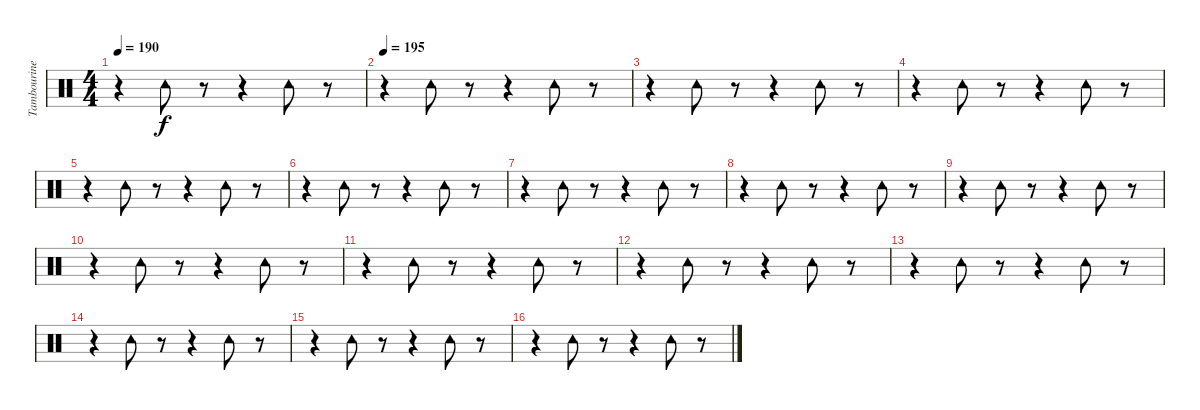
\track ("Tambourine" "Tambourine") {instrument percussion}
\staff {score}
\articulation defaults
\ts (4 4)
\tempo 190
\clef neutral
\ks c
r.4{dy f} "Tambourine (hit)".8 r.8 r.4 "Tambourine (hit)".8 r.8 |
\tempo 195
r.4 "Tambourine (hit)".8 r.8 r.4 "Tambourine (hit)".8 r.8 |
r.4 "Tambourine (hit)".8 r.8 r.4 "Tambourine (hit)".8 r.8 |
r.4 "Tambourine (hit)".8 r.8 r.4 "Tambourine (hit)".8 r.8 |
r.4 "Tambourine (hit)".8 r.8 r.4 "Tambourine (hit)".8 r.8 |
r.4 "Tambourine (hit)".8 r.8 r.4 "Tambourine (hit)".8 r.8 |
r.4 "Tambourine (hit)".8 r.8 r.4 "Tambourine (hit)".8 r.8 |
r.4 "Tambourine (hit)".8 r.8 r.4 "Tambourine (hit)".8 r.8 |
r.4 "Tambourine (hit)".8 r.8 r.4 "Tambourine (hit)".8 r.8 |
r.4 "Tambourine (hit)".8 r.8 r.4 "Tambourine (hit)".8 r.8 |
r.4 "Tambourine (hit)".8 r.8 r.4 "Tambourine (hit)".8 r.8 |
r.4 "Tambourine (hit)".8 r.8 r.4 "Tambourine (hit)".8 r.8 |
r.4 "Tambourine (hit)".8 r.8 r.4 "Tambourine (hit)".8 r.8 |
r.4 "Tambourine (hit)".8 r.8 r.4 "Tambourine (hit)".8 r.8 |
r.4 "Tambourine (hit)".8 r.8 r.4 "Tambourine (hit)".8 r.8 |
r.4 "Tambourine (hit)".8 r.8 r.4 "Tambourine (hit)".8 r.8
